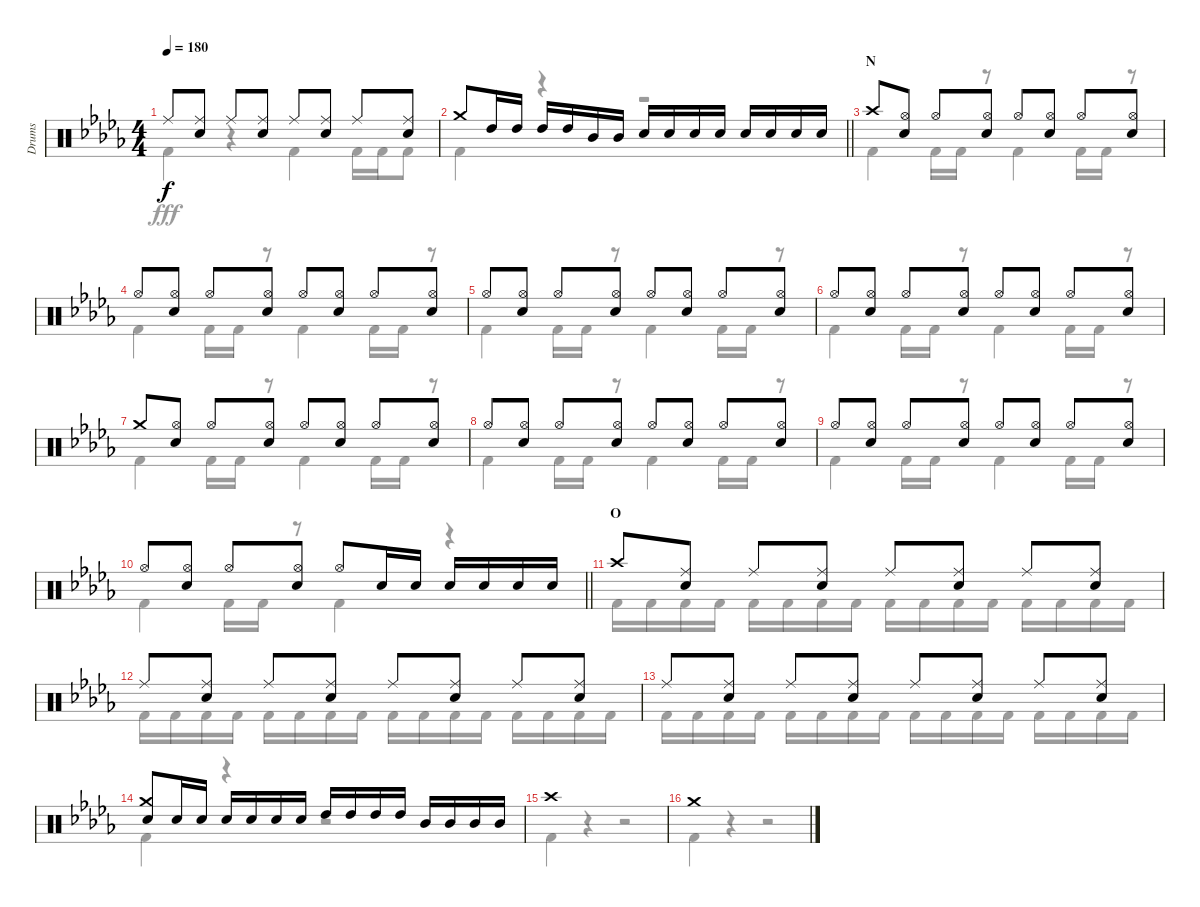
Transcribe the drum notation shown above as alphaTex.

\track ("Drums" "Drums") {instrument percussion}
\staff {score}
\articulation defaults
\voice
\ts (4 4)
\tempo 180
\clef neutral
\ks db "Ride (middle)".8{dy f}
("Ride (middle)" "Snare (hit) 2").8 "Ride (middle)".8 ("Ride (middle)" "Snare (hit) 2").8 "Ride (middle)".8 ("Ride (middle)" "Snare (hit) 2").8 "Ride (middle)".8 ("Ride (middle)" "Snare (hit) 2").8 |
\barLineRight lightlight "Crash medium (hit)".8 "High Tom (hit)".16 "High Tom (hit)".16 "High Tom (hit)".16 "High Tom (hit)".16 "Mid Tom (hit)".16 "Mid Tom (hit)".16 "Snare (hit) 2".16 "Snare (hit) 2".16 "Snare (hit) 2".16 "Snare (hit) 2".16 "Snare (hit) 2".16 "Snare (hit) 2".16 "Snare (hit) 2".16 "Snare (hit) 2".16
|
\section ("" "N")
"Crash high (hit)".8 ("Hi-Hat (open)" "Snare (hit) 2").8 "Hi-Hat (open)".8 ("Hi-Hat (open)" "Snare (hit) 2").8 "Hi-Hat (open)".8 ("Hi-Hat (open)" "Snare (hit) 2").8 "Hi-Hat (open)".8 ("Hi-Hat (open)" "Snare (hit) 2").8 |
"Hi-Hat (open)".8 ("Hi-Hat (open)" "Snare (hit) 2").8 "Hi-Hat (open)".8 ("Hi-Hat (open)" "Snare (hit) 2").8 "Hi-Hat (open)".8 ("Hi-Hat (open)" "Snare (hit) 2").8 "Hi-Hat (open)".8 ("Hi-Hat (open)" "Snare (hit) 2").8 |
"Hi-Hat (open)".8 ("Hi-Hat (open)" "Snare (hit) 2").8 "Hi-Hat (open)".8 ("Hi-Hat (open)" "Snare (hit) 2").8 "Hi-Hat (open)".8 ("Hi-Hat (open)" "Snare (hit) 2").8 "Hi-Hat (open)".8 ("Hi-Hat (open)" "Snare (hit) 2").8 |
"Hi-Hat (open)".8 ("Hi-Hat (open)" "Snare (hit) 2").8 "Hi-Hat (open)".8 ("Hi-Hat (open)" "Snare (hit) 2").8 "Hi-Hat (open)".8 ("Hi-Hat (open)" "Snare (hit) 2").8 "Hi-Hat (open)".8 ("Hi-Hat (open)" "Snare (hit) 2").8 |
"Crash medium (hit)".8 ("Hi-Hat (open)" "Snare (hit) 2").8 "Hi-Hat (open)".8 ("Hi-Hat (open)" "Snare (hit) 2").8 "Hi-Hat (open)".8 ("Hi-Hat (open)" "Snare (hit) 2").8 "Hi-Hat (open)".8 ("Hi-Hat (open)" "Snare (hit) 2").8 |
"Hi-Hat (open)".8 ("Hi-Hat (open)" "Snare (hit) 2").8 "Hi-Hat (open)".8 ("Hi-Hat (open)" "Snare (hit) 2").8 "Hi-Hat (open)".8 ("Hi-Hat (open)" "Snare (hit) 2").8 "Hi-Hat (open)".8 ("Hi-Hat (open)" "Snare (hit) 2").8 |
"Hi-Hat (open)".8 ("Hi-Hat (open)" "Snare (hit) 2").8 "Hi-Hat (open)".8 ("Hi-Hat (open)" "Snare (hit) 2").8 "Hi-Hat (open)".8 ("Hi-Hat (open)" "Snare (hit) 2").8 "Hi-Hat (open)".8 ("Hi-Hat (open)" "Snare (hit) 2").8 |
\barLineRight lightlight "Hi-Hat (open)".8
("Hi-Hat (open)" "Snare (hit) 2").8 "Hi-Hat (open)".8 ("Hi-Hat (open)" "Snare (hit) 2").8 "Hi-Hat (open)".8 "Snare (hit) 2".16 "Snare (hit) 2".16 "Snare (hit) 2".16 "Snare (hit) 2".16 "Snare (hit) 2".16 "Snare (hit) 2".16 |
\section ("" "O")
"Crash high (hit)".8 ("Ride (middle)" "Snare (hit) 2").8 "Ride (middle)".8 ("Ride (middle)" "Snare (hit) 2").8 "Ride (middle)".8 ("Ride (middle)" "Snare (hit) 2").8 "Ride (middle)".8 ("Ride (middle)" "Snare (hit) 2").8 |
"Ride (middle)".8 ("Ride (middle)" "Snare (hit) 2").8 "Ride (middle)".8 ("Ride (middle)" "Snare (hit) 2").8 "Ride (middle)".8 ("Ride (middle)" "Snare (hit) 2").8 "Ride (middle)".8 ("Ride (middle)" "Snare (hit) 2").8 |
"Ride (middle)".8 ("Ride (middle)" "Snare (hit) 2").8 "Ride (middle)".8 ("Ride (middle)" "Snare (hit) 2").8 "Ride (middle)".8 ("Ride (middle)" "Snare (hit) 2").8 "Ride (middle)".8 ("Ride (middle)" "Snare (hit) 2").8 |
("Crash medium (hit)" "Snare (hit) 2").8 "Snare (hit) 2".16 "Snare (hit) 2".16 "Snare (hit) 2".16 "Snare (hit) 2".16 "Snare (hit) 2".16 "Snare (hit) 2".16 "High Tom (hit)".16 "High Tom (hit)".16 "High Tom (hit)".16 "High Tom (hit)".16 "Mid Tom (hit)".16 "Mid Tom (hit)".16 "Mid Tom (hit)".16 "Mid Tom (hit)".16 |
"Crash high (hit)".1 |
"Crash medium (hit)".1
\voice
\clef neutral
\ottava regular
\simile none
\ks db "Kick (hit) 2".4{dy fff}
r.4 "Kick (hit) 2".4 "Kick (hit) 2".16 "Kick (hit) 2".16 "Kick (hit) 2".8 |
\barLineRight lightlight "Kick (hit) 2".4
r.4 r.2 |
"Kick (hit) 2".4 "Kick (hit) 2".16 "Kick (hit) 2".16 r.8 "Kick (hit) 2".4 "Kick (hit) 2".16 "Kick (hit) 2".16 r.8 |
"Kick (hit) 2".4 "Kick (hit) 2".16 "Kick (hit) 2".16 r.8 "Kick (hit) 2".4 "Kick (hit) 2".16 "Kick (hit) 2".16 r.8 |
"Kick (hit) 2".4 "Kick (hit) 2".16 "Kick (hit) 2".16 r.8 "Kick (hit) 2".4 "Kick (hit) 2".16 "Kick (hit) 2".16 r.8 |
"Kick (hit) 2".4 "Kick (hit) 2".16 "Kick (hit) 2".16 r.8 "Kick (hit) 2".4 "Kick (hit) 2".16 "Kick (hit) 2".16 r.8 |
"Kick (hit) 2".4 "Kick (hit) 2".16 "Kick (hit) 2".16 r.8 "Kick (hit) 2".4 "Kick (hit) 2".16 "Kick (hit) 2".16 r.8 |
"Kick (hit) 2".4 "Kick (hit) 2".16 "Kick (hit) 2".16 r.8 "Kick (hit) 2".4 "Kick (hit) 2".16 "Kick (hit) 2".16 r.8 |
"Kick (hit) 2".4 "Kick (hit) 2".16 "Kick (hit) 2".16 r.8 "Kick (hit) 2".4 "Kick (hit) 2".16 "Kick (hit) 2".16 r.8 |
\barLineRight lightlight "Kick (hit) 2".4 "Kick (hit) 2".16 "Kick (hit) 2".16
r.8 "Kick (hit) 2".4 r.4 |
"Kick (hit) 2".16 "Kick (hit) 2".16 "Kick (hit) 2".16 "Kick (hit) 2".16 "Kick (hit) 2".16 "Kick (hit) 2".16 "Kick (hit) 2".16 "Kick (hit) 2".16 "Kick (hit) 2".16 "Kick (hit) 2".16 "Kick (hit) 2".16 "Kick (hit) 2".16 "Kick (hit) 2".16 "Kick (hit) 2".16 "Kick (hit) 2".16 "Kick (hit) 2".16 |
"Kick (hit) 2".16 "Kick (hit) 2".16 "Kick (hit) 2".16 "Kick (hit) 2".16 "Kick (hit) 2".16 "Kick (hit) 2".16 "Kick (hit) 2".16 "Kick (hit) 2".16 "Kick (hit) 2".16 "Kick (hit) 2".16 "Kick (hit) 2".16 "Kick (hit) 2".16 "Kick (hit) 2".16 "Kick (hit) 2".16 "Kick (hit) 2".16 "Kick (hit) 2".16 |
"Kick (hit) 2".16 "Kick (hit) 2".16 "Kick (hit) 2".16 "Kick (hit) 2".16 "Kick (hit) 2".16 "Kick (hit) 2".16 "Kick (hit) 2".16 "Kick (hit) 2".16 "Kick (hit) 2".16 "Kick (hit) 2".16 "Kick (hit) 2".16 "Kick (hit) 2".16 "Kick (hit) 2".16 "Kick (hit) 2".16 "Kick (hit) 2".16 "Kick (hit) 2".16 |
"Kick (hit) 2".4 r.4 r.2 |
"Kick (hit) 2".4 r.4 r.2 |
"Kick (hit) 2".4 r.4 r.2
